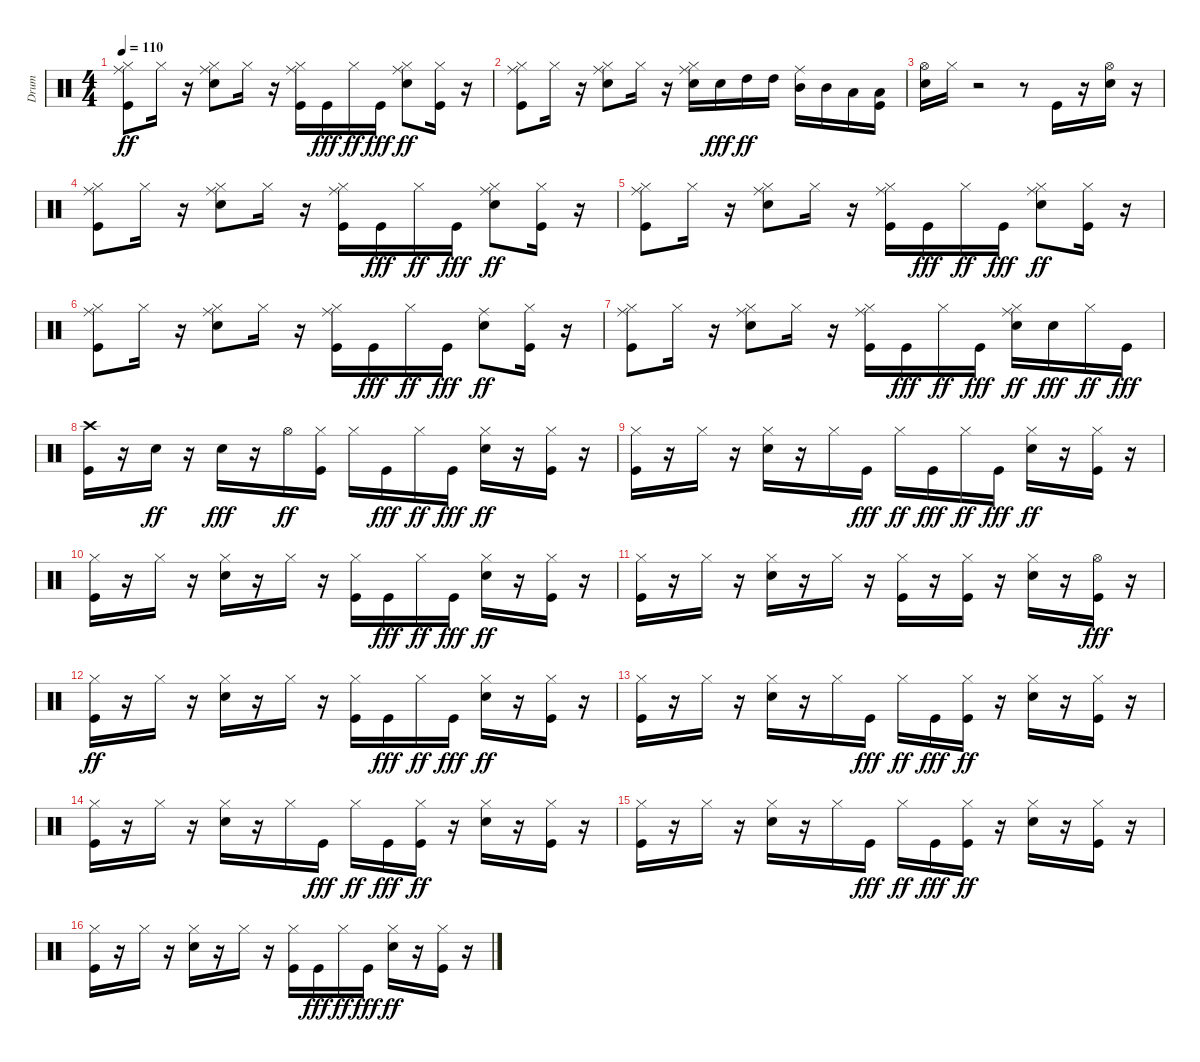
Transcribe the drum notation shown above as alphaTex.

\track ("Drum" "Drum") {instrument percussion}
\staff {score}
\articulation defaults
\ts (4 4)
\tempo 110
\clef neutral
\ks c
("Kick (hit)" "Hi-Hat (closed)" "Ride (middle)").8{dy ff} "Hi-Hat (closed)".16 r.16 ("Electric Snare (hit)" "Hi-Hat (closed)" "Ride (middle)").8 "Hi-Hat (closed)".16 r.16 ("Kick (hit)" "Hi-Hat (closed)" "Ride (middle)").16 "Kick (hit)".16{dy fff} "Hi-Hat (closed)".16{dy ff} "Kick (hit)".16{dy fff} ("Electric Snare (hit)" "Hi-Hat (closed)" "Ride (middle)").8{dy ff} ("Kick (hit)" "Hi-Hat (closed)").16 r.16 |
("Kick (hit)" "Hi-Hat (closed)" "Ride (middle)").8 "Hi-Hat (closed)".16 r.16 ("Electric Snare (hit)" "Hi-Hat (closed)" "Ride (middle)").8 "Hi-Hat (closed)".16 r.16 ("Electric Snare (hit)" "Hi-Hat (closed)" "Ride (middle)").16 "Electric Snare (hit)".16{dy fff} "High Tom (hit)".16{dy ff} "High Tom (hit)".16 ("Mid Tom (hit)" "Ride (middle)").16 "Mid Tom (hit)".16 "Low Tom (hit)".16 ("Low Tom (hit)" "Kick (hit)").16 |
("Electric Snare (hit)" "Hi-Hat (open)").16 "Hi-Hat (closed)".16 r.2 r.8 "Kick (hit)".16 r.16 ("Hi-Hat (open)" "Electric Snare (hit)").16 r.16 |
("Kick (hit)" "Hi-Hat (closed)" "Ride (middle)").8 "Hi-Hat (closed)".16 r.16 ("Electric Snare (hit)" "Hi-Hat (closed)" "Ride (middle)").8 "Hi-Hat (closed)".16 r.16 ("Kick (hit)" "Hi-Hat (closed)" "Ride (middle)").16 "Kick (hit)".16{dy fff} "Hi-Hat (closed)".16{dy ff} "Kick (hit)".16{dy fff} ("Hi-Hat (closed)" "Electric Snare (hit)" "Ride (middle)").8{dy ff} ("Kick (hit)" "Hi-Hat (closed)").16 r.16 |
("Kick (hit)" "Hi-Hat (closed)" "Ride (middle)").8 "Hi-Hat (closed)".16 r.16 ("Hi-Hat (closed)" "Electric Snare (hit)" "Ride (middle)").8 "Hi-Hat (closed)".16 r.16 ("Kick (hit)" "Hi-Hat (closed)" "Ride (middle)").16 "Kick (hit)".16{dy fff} "Hi-Hat (closed)".16{dy ff} "Kick (hit)".16{dy fff} ("Hi-Hat (closed)" "Electric Snare (hit)" "Ride (middle)").8{dy ff} ("Kick (hit)" "Hi-Hat (closed)").16 r.16 |
("Ride (middle)" "Kick (hit)" "Hi-Hat (closed)").8 "Hi-Hat (closed)".16 r.16 ("Hi-Hat (closed)" "Electric Snare (hit)" "Ride (middle)").8 "Hi-Hat (closed)".16 r.16 ("Kick (hit)" "Hi-Hat (closed)" "Ride (middle)").16 "Kick (hit)".16{dy fff} "Hi-Hat (closed)".16{dy ff} "Kick (hit)".16{dy fff} ("Electric Snare (hit)" "Ride (middle)").8{dy ff} ("Kick (hit)" "Hi-Hat (closed)").16 r.16 |
("Kick (hit)" "Hi-Hat (closed)" "Ride (middle)").8 "Hi-Hat (closed)".16 r.16 ("Electric Snare (hit)" "Hi-Hat (closed)" "Ride (middle)").8 "Hi-Hat (closed)".16 r.16 ("Kick (hit)" "Hi-Hat (closed)" "Ride (middle)").16 "Kick (hit)".16{dy fff} "Hi-Hat (closed)".16{dy ff} "Kick (hit)".16{dy fff} ("Hi-Hat (closed)" "Electric Snare (hit)" "Ride (middle)").16{dy ff} "Electric Snare (hit)".16{dy fff} "Hi-Hat (closed)".16{dy ff} "Kick (hit)".16{dy fff} |
("Crash high (hit)" "Kick (hit)").16 r.16 "Electric Snare (hit)".16{dy ff} r.16 "Electric Snare (hit)".16{dy fff} r.16 "Hi-Hat (open)".16{dy ff} ("Kick (hit)" "Hi-Hat (closed)").16 "Hi-Hat (closed)".16 "Kick (hit)".16{dy fff} "Hi-Hat (closed)".16{dy ff} "Kick (hit)".16{dy fff} ("Electric Snare (hit)" "Hi-Hat (closed)").16{dy ff} r.16 ("Kick (hit)" "Hi-Hat (closed)").16 r.16 |
("Kick (hit)" "Hi-Hat (closed)").16 r.16 "Hi-Hat (closed)".16 r.16 ("Electric Snare (hit)" "Hi-Hat (closed)").16 r.16 "Hi-Hat (closed)".16 "Kick (hit)".16{dy fff} "Hi-Hat (closed)".16{dy ff} "Kick (hit)".16{dy fff} "Hi-Hat (closed)".16{dy ff} "Kick (hit)".16{dy fff} ("Electric Snare (hit)" "Hi-Hat (closed)").16{dy ff} r.16 ("Kick (hit)" "Hi-Hat (closed)").16 r.16 |
("Kick (hit)" "Hi-Hat (closed)").16 r.16 "Hi-Hat (closed)".16 r.16 ("Electric Snare (hit)" "Hi-Hat (closed)").16 r.16 "Hi-Hat (closed)".16 r.16 ("Kick (hit)" "Hi-Hat (closed)").16 "Kick (hit)".16{dy fff} "Hi-Hat (closed)".16{dy ff} "Kick (hit)".16{dy fff} ("Electric Snare (hit)" "Hi-Hat (closed)").16{dy ff} r.16 ("Kick (hit)" "Hi-Hat (closed)").16 r.16 |
("Kick (hit)" "Hi-Hat (closed)").16 r.16 "Hi-Hat (closed)".16 r.16 ("Electric Snare (hit)" "Hi-Hat (closed)").16 r.16 "Hi-Hat (closed)".16 r.16 ("Kick (hit)" "Hi-Hat (closed)").16 r.16 ("Kick (hit)" "Hi-Hat (closed)").16 r.16 ("Electric Snare (hit)" "Hi-Hat (closed)").16 r.16 ("Hi-Hat (open)" "Kick (hit)").16{dy fff} r.16 |
("Kick (hit)" "Hi-Hat (closed)").16{dy ff} r.16 "Hi-Hat (closed)".16 r.16 ("Electric Snare (hit)" "Hi-Hat (closed)").16 r.16 "Hi-Hat (closed)".16 r.16 ("Kick (hit)" "Hi-Hat (closed)").16 "Kick (hit)".16{dy fff} "Hi-Hat (closed)".16{dy ff} "Kick (hit)".16{dy fff} ("Electric Snare (hit)" "Hi-Hat (closed)").16{dy ff} r.16 ("Kick (hit)" "Hi-Hat (closed)").16 r.16 |
("Kick (hit)" "Hi-Hat (closed)").16 r.16 "Hi-Hat (closed)".16 r.16 ("Electric Snare (hit)" "Hi-Hat (closed)").16 r.16 "Hi-Hat (closed)".16 "Kick (hit)".16{dy fff} "Hi-Hat (closed)".16{dy ff} "Kick (hit)".16{dy fff} ("Kick (hit)" "Hi-Hat (closed)").16{dy ff} r.16 ("Electric Snare (hit)" "Hi-Hat (closed)").16 r.16 ("Kick (hit)" "Hi-Hat (closed)").16 r.16 |
("Kick (hit)" "Hi-Hat (closed)").16 r.16 "Hi-Hat (closed)".16 r.16 ("Electric Snare (hit)" "Hi-Hat (closed)").16 r.16 "Hi-Hat (closed)".16 "Kick (hit)".16{dy fff} "Hi-Hat (closed)".16{dy ff} "Kick (hit)".16{dy fff} ("Kick (hit)" "Hi-Hat (closed)").16{dy ff} r.16 ("Electric Snare (hit)" "Hi-Hat (closed)").16 r.16 ("Kick (hit)" "Hi-Hat (closed)").16 r.16 |
("Kick (hit)" "Hi-Hat (closed)").16 r.16 "Hi-Hat (closed)".16 r.16 ("Electric Snare (hit)" "Hi-Hat (closed)").16 r.16 "Hi-Hat (closed)".16 "Kick (hit)".16{dy fff} "Hi-Hat (closed)".16{dy ff} "Kick (hit)".16{dy fff} ("Kick (hit)" "Hi-Hat (closed)").16{dy ff} r.16 ("Electric Snare (hit)" "Hi-Hat (closed)").16 r.16 ("Kick (hit)" "Hi-Hat (closed)").16 r.16 |
("Kick (hit)" "Hi-Hat (closed)").16 r.16 "Hi-Hat (closed)".16 r.16 ("Electric Snare (hit)" "Hi-Hat (closed)").16 r.16 "Hi-Hat (closed)".16 r.16 ("Kick (hit)" "Hi-Hat (closed)").16 "Kick (hit)".16{dy fff} "Hi-Hat (closed)".16{dy ff} "Kick (hit)".16{dy fff} ("Electric Snare (hit)" "Hi-Hat (closed)").16{dy ff} r.16 ("Kick (hit)" "Hi-Hat (closed)").16 r.16
